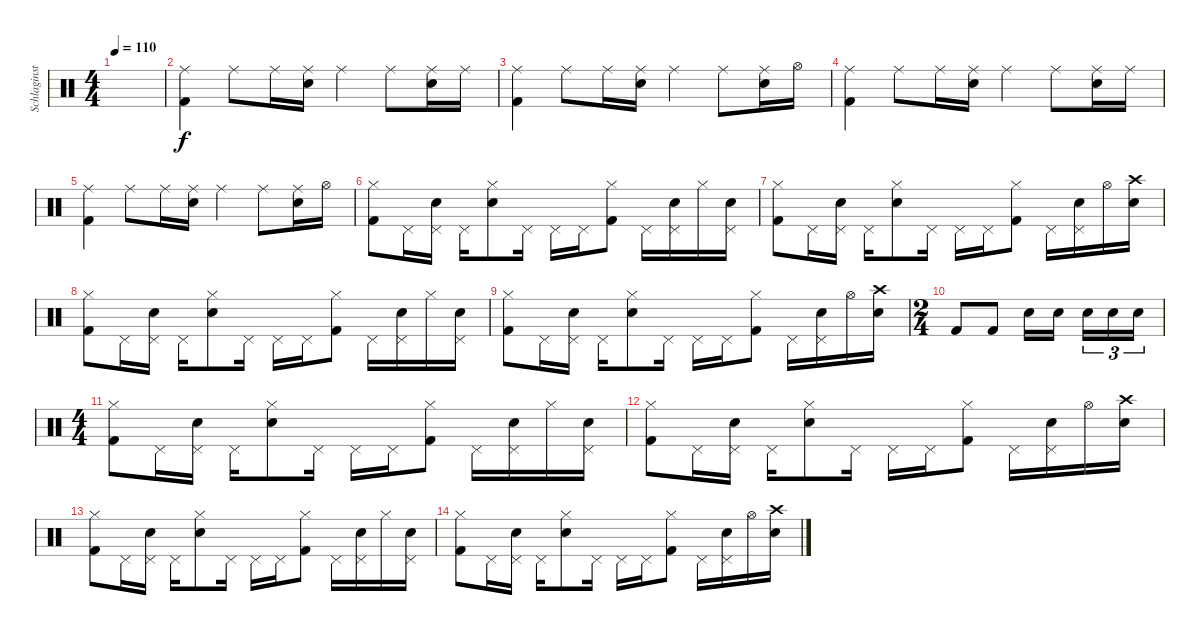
\track ("Schlaginstrumente - Auswahl" "Schlaginst") {mute instrument percussion}
\staff {score}
\articulation defaults
\ts (4 4)
\tempo 110
\clef neutral
\ks c
|
("Ride (middle)" "Kick (hit) 2").4 "Ride (middle)".8 "Ride (middle)".16 ("Ride (middle)" "Snare (hit) 2").16 "Ride (middle)".4 "Ride (middle)".8 ("Ride (middle)" "Snare (hit) 2").16 "Ride (middle)".16 |
("Ride (middle)" "Kick (hit) 2").4 "Ride (middle)".8 "Ride (middle)".16 ("Ride (middle)" "Snare (hit) 2").16 "Ride (middle)".4 "Ride (middle)".8 ("Ride (middle)" "Snare (hit) 2").16 "Hi-Hat (open)".16 |
("Ride (middle)" "Kick (hit) 2").4 "Ride (middle)".8 "Ride (middle)".16 ("Ride (middle)" "Snare (hit) 2").16 "Ride (middle)".4 "Ride (middle)".8 ("Ride (middle)" "Snare (hit) 2").16 "Ride (middle)".16 |
("Ride (middle)" "Kick (hit) 2").4 "Ride (middle)".8 "Ride (middle)".16 ("Ride (middle)" "Snare (hit) 2").16 "Ride (middle)".4 "Ride (middle)".8 ("Ride (middle)" "Snare (hit) 2").16 "Hi-Hat (open)".16 |
("Hi-Hat (closed)" "Kick (hit) 2").8 "Pedal Hi-Hat (hit)".16 ("Pedal Hi-Hat (hit)" "Snare (hit) 2").16 "Pedal Hi-Hat (hit)".16 ("Hi-Hat (closed)" "Snare (hit) 2").8 "Pedal Hi-Hat (hit)".16 "Pedal Hi-Hat (hit)".16 "Pedal Hi-Hat (hit)".16 ("Hi-Hat (closed)" "Kick (hit) 2").8 "Pedal Hi-Hat (hit)".16 ("Pedal Hi-Hat (hit)" "Snare (hit) 2").16 "Hi-Hat (closed)".16 ("Pedal Hi-Hat (hit)" "Snare (hit) 2").16 |
("Hi-Hat (closed)" "Kick (hit) 2").8 "Pedal Hi-Hat (hit)".16 ("Pedal Hi-Hat (hit)" "Snare (hit) 2").16 "Pedal Hi-Hat (hit)".16 ("Hi-Hat (closed)" "Snare (hit) 2").8 "Pedal Hi-Hat (hit)".16 "Pedal Hi-Hat (hit)".16 "Pedal Hi-Hat (hit)".16 ("Hi-Hat (closed)" "Kick (hit) 2").8 "Pedal Hi-Hat (hit)".16 ("Pedal Hi-Hat (hit)" "Snare (hit) 2").16 "Hi-Hat (open)".16 ("Crash high (hit)" "Snare (hit) 2").16 |
("Hi-Hat (closed)" "Kick (hit) 2").8 "Pedal Hi-Hat (hit)".16 ("Pedal Hi-Hat (hit)" "Snare (hit) 2").16 "Pedal Hi-Hat (hit)".16 ("Hi-Hat (closed)" "Snare (hit) 2").8 "Pedal Hi-Hat (hit)".16 "Pedal Hi-Hat (hit)".16 "Pedal Hi-Hat (hit)".16 ("Hi-Hat (closed)" "Kick (hit) 2").8 "Pedal Hi-Hat (hit)".16 ("Pedal Hi-Hat (hit)" "Snare (hit) 2").16 "Hi-Hat (closed)".16 ("Pedal Hi-Hat (hit)" "Snare (hit) 2").16 |
("Hi-Hat (closed)" "Kick (hit) 2").8 "Pedal Hi-Hat (hit)".16 ("Pedal Hi-Hat (hit)" "Snare (hit) 2").16 "Pedal Hi-Hat (hit)".16 ("Hi-Hat (closed)" "Snare (hit) 2").8 "Pedal Hi-Hat (hit)".16 "Pedal Hi-Hat (hit)".16 "Pedal Hi-Hat (hit)".16 ("Hi-Hat (closed)" "Kick (hit) 2").8 "Pedal Hi-Hat (hit)".16 ("Pedal Hi-Hat (hit)" "Snare (hit) 2").16 "Hi-Hat (open)".16 ("Crash high (hit)" "Snare (hit) 2").16 |
\ts (2 4)
"Kick (hit) 2".8 "Kick (hit) 2".8 "Snare (hit) 2".16 "Snare (hit) 2".16{beam splitsecondary} "Snare (hit) 2".16{tu (3 2)} "Snare (hit) 2".16{tu (3 2)} "Snare (hit) 2".16{tu (3 2)} |
\ts (4 4)
("Hi-Hat (closed)" "Kick (hit) 2").8 "Pedal Hi-Hat (hit)".16 ("Pedal Hi-Hat (hit)" "Snare (hit) 2").16 "Pedal Hi-Hat (hit)".16 ("Hi-Hat (closed)" "Snare (hit) 2").8 "Pedal Hi-Hat (hit)".16 "Pedal Hi-Hat (hit)".16 "Pedal Hi-Hat (hit)".16 ("Hi-Hat (closed)" "Kick (hit) 2").8 "Pedal Hi-Hat (hit)".16 ("Pedal Hi-Hat (hit)" "Snare (hit) 2").16 "Hi-Hat (closed)".16 ("Pedal Hi-Hat (hit)" "Snare (hit) 2").16 |
("Hi-Hat (closed)" "Kick (hit) 2").8 "Pedal Hi-Hat (hit)".16 ("Pedal Hi-Hat (hit)" "Snare (hit) 2").16 "Pedal Hi-Hat (hit)".16 ("Hi-Hat (closed)" "Snare (hit) 2").8 "Pedal Hi-Hat (hit)".16 "Pedal Hi-Hat (hit)".16 "Pedal Hi-Hat (hit)".16 ("Hi-Hat (closed)" "Kick (hit) 2").8 "Pedal Hi-Hat (hit)".16 ("Pedal Hi-Hat (hit)" "Snare (hit) 2").16 "Hi-Hat (open)".16 ("Crash high (hit)" "Snare (hit) 2").16 |
("Hi-Hat (closed)" "Kick (hit) 2").8 "Pedal Hi-Hat (hit)".16 ("Pedal Hi-Hat (hit)" "Snare (hit) 2").16 "Pedal Hi-Hat (hit)".16 ("Hi-Hat (closed)" "Snare (hit) 2").8 "Pedal Hi-Hat (hit)".16 "Pedal Hi-Hat (hit)".16 "Pedal Hi-Hat (hit)".16 ("Hi-Hat (closed)" "Kick (hit) 2").8 "Pedal Hi-Hat (hit)".16 ("Pedal Hi-Hat (hit)" "Snare (hit) 2").16 "Hi-Hat (closed)".16 ("Pedal Hi-Hat (hit)" "Snare (hit) 2").16 |
("Hi-Hat (closed)" "Kick (hit) 2").8 "Pedal Hi-Hat (hit)".16 ("Pedal Hi-Hat (hit)" "Snare (hit) 2").16 "Pedal Hi-Hat (hit)".16 ("Hi-Hat (closed)" "Snare (hit) 2").8 "Pedal Hi-Hat (hit)".16 "Pedal Hi-Hat (hit)".16 "Pedal Hi-Hat (hit)".16 ("Hi-Hat (closed)" "Kick (hit) 2").8 "Pedal Hi-Hat (hit)".16 ("Pedal Hi-Hat (hit)" "Snare (hit) 2").16 "Hi-Hat (open)".16 ("Crash high (hit)" "Snare (hit) 2").16
